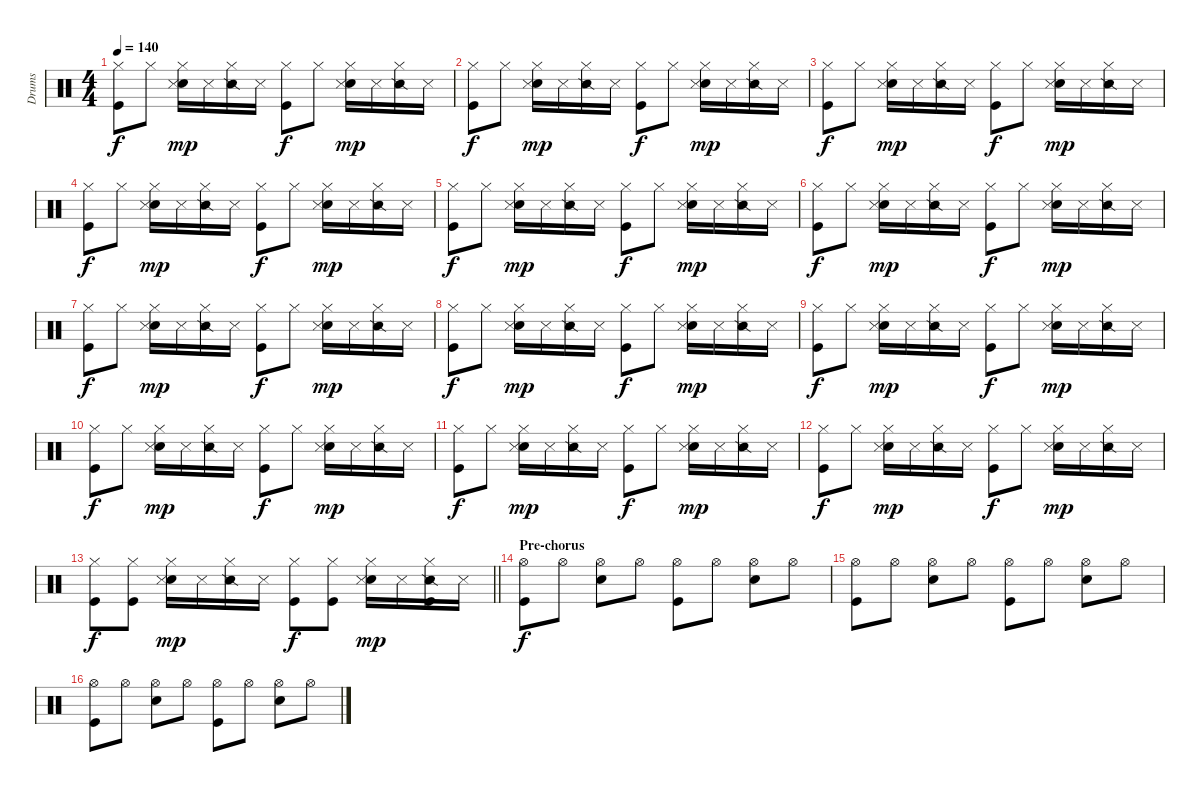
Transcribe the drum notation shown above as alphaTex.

\track ("Drums" "Drums") {instrument percussion}
\staff {score}
\articulation defaults
\ts (4 4)
\tempo 140
\clef neutral
\ks c
("Hi-Hat (closed)" "Kick (hit)").8{dy f} "Hi-Hat (closed)".8 ("Hi-Hat (closed)" "Snare (hit) 2" "Snare (side stick) 3").16{dy mp} "Metronome (hit)".16 ("Hi-Hat (closed)" "Snare (side stick) 2").16 "Metronome (hit)".16 ("Hi-Hat (closed)" "Kick (hit)").8{dy f} "Hi-Hat (closed)".8 ("Hi-Hat (closed)" "Snare (hit) 2" "Snare (side stick) 3").16{dy mp} "Metronome (hit)".16 ("Hi-Hat (closed)" "Snare (side stick) 2").16 "Metronome (hit)".16 |
("Hi-Hat (closed)" "Kick (hit)").8{dy f} "Hi-Hat (closed)".8 ("Hi-Hat (closed)" "Snare (hit) 2" "Snare (side stick) 3").16{dy mp} "Metronome (hit)".16 ("Hi-Hat (closed)" "Snare (side stick) 2").16 "Metronome (hit)".16 ("Hi-Hat (closed)" "Kick (hit)").8{dy f} "Hi-Hat (closed)".8 ("Hi-Hat (closed)" "Snare (hit) 2" "Snare (side stick) 3").16{dy mp} "Metronome (hit)".16 ("Hi-Hat (closed)" "Snare (side stick) 2").16 "Metronome (hit)".16 |
("Hi-Hat (closed)" "Kick (hit)").8{dy f} "Hi-Hat (closed)".8 ("Hi-Hat (closed)" "Snare (hit) 2" "Snare (side stick) 3").16{dy mp} "Metronome (hit)".16 ("Hi-Hat (closed)" "Snare (side stick) 2").16 "Metronome (hit)".16 ("Hi-Hat (closed)" "Kick (hit)").8{dy f} "Hi-Hat (closed)".8 ("Hi-Hat (closed)" "Snare (hit) 2" "Snare (side stick) 3").16{dy mp} "Metronome (hit)".16 ("Hi-Hat (closed)" "Snare (side stick) 2").16 "Metronome (hit)".16 |
("Hi-Hat (closed)" "Kick (hit)").8{dy f} "Hi-Hat (closed)".8 ("Hi-Hat (closed)" "Snare (hit) 2" "Snare (side stick) 3").16{dy mp} "Metronome (hit)".16 ("Hi-Hat (closed)" "Snare (side stick) 2").16 "Metronome (hit)".16 ("Hi-Hat (closed)" "Kick (hit)").8{dy f} "Hi-Hat (closed)".8 ("Hi-Hat (closed)" "Snare (hit) 2" "Snare (side stick) 3").16{dy mp} "Metronome (hit)".16 ("Hi-Hat (closed)" "Snare (side stick) 2").16 "Metronome (hit)".16 |
("Hi-Hat (closed)" "Kick (hit)").8{dy f} "Hi-Hat (closed)".8 ("Hi-Hat (closed)" "Snare (hit) 2" "Snare (side stick) 3").16{dy mp} "Metronome (hit)".16 ("Hi-Hat (closed)" "Snare (side stick) 2").16 "Metronome (hit)".16 ("Hi-Hat (closed)" "Kick (hit)").8{dy f} "Hi-Hat (closed)".8 ("Hi-Hat (closed)" "Snare (hit) 2" "Snare (side stick) 3").16{dy mp} "Metronome (hit)".16 ("Hi-Hat (closed)" "Snare (side stick) 2").16 "Metronome (hit)".16 |
("Hi-Hat (closed)" "Kick (hit)").8{dy f} "Hi-Hat (closed)".8 ("Hi-Hat (closed)" "Snare (hit) 2" "Snare (side stick) 3").16{dy mp} "Metronome (hit)".16 ("Hi-Hat (closed)" "Snare (side stick) 2").16 "Metronome (hit)".16 ("Hi-Hat (closed)" "Kick (hit)").8{dy f} "Hi-Hat (closed)".8 ("Hi-Hat (closed)" "Snare (hit) 2" "Snare (side stick) 3").16{dy mp} "Metronome (hit)".16 ("Hi-Hat (closed)" "Snare (side stick) 2").16 "Metronome (hit)".16 |
("Hi-Hat (closed)" "Kick (hit)").8{dy f} "Hi-Hat (closed)".8 ("Hi-Hat (closed)" "Snare (hit) 2" "Snare (side stick) 3").16{dy mp} "Metronome (hit)".16 ("Hi-Hat (closed)" "Snare (side stick) 2").16 "Metronome (hit)".16 ("Hi-Hat (closed)" "Kick (hit)").8{dy f} "Hi-Hat (closed)".8 ("Hi-Hat (closed)" "Snare (hit) 2" "Snare (side stick) 3").16{dy mp} "Metronome (hit)".16 ("Hi-Hat (closed)" "Snare (side stick) 2").16 "Metronome (hit)".16 |
("Hi-Hat (closed)" "Kick (hit)").8{dy f} "Hi-Hat (closed)".8 ("Hi-Hat (closed)" "Snare (hit) 2" "Snare (side stick) 3").16{dy mp} "Metronome (hit)".16 ("Hi-Hat (closed)" "Snare (side stick) 2").16 "Metronome (hit)".16 ("Hi-Hat (closed)" "Kick (hit)").8{dy f} "Hi-Hat (closed)".8 ("Hi-Hat (closed)" "Snare (hit) 2" "Snare (side stick) 3").16{dy mp} "Metronome (hit)".16 ("Hi-Hat (closed)" "Snare (side stick) 2").16 "Metronome (hit)".16 |
("Hi-Hat (closed)" "Kick (hit)").8{dy f} "Hi-Hat (closed)".8 ("Hi-Hat (closed)" "Snare (hit) 2" "Snare (side stick) 3").16{dy mp} "Metronome (hit)".16 ("Hi-Hat (closed)" "Snare (side stick) 2").16 "Metronome (hit)".16 ("Hi-Hat (closed)" "Kick (hit)").8{dy f} "Hi-Hat (closed)".8 ("Hi-Hat (closed)" "Snare (hit) 2" "Snare (side stick) 3").16{dy mp} "Metronome (hit)".16 ("Hi-Hat (closed)" "Snare (side stick) 2").16 "Metronome (hit)".16 |
("Hi-Hat (closed)" "Kick (hit)").8{dy f} "Hi-Hat (closed)".8 ("Hi-Hat (closed)" "Snare (hit) 2" "Snare (side stick) 3").16{dy mp} "Metronome (hit)".16 ("Hi-Hat (closed)" "Snare (side stick) 2").16 "Metronome (hit)".16 ("Hi-Hat (closed)" "Kick (hit)").8{dy f} "Hi-Hat (closed)".8 ("Hi-Hat (closed)" "Snare (hit) 2" "Snare (side stick) 3").16{dy mp} "Metronome (hit)".16 ("Hi-Hat (closed)" "Snare (side stick) 2").16 "Metronome (hit)".16 |
("Hi-Hat (closed)" "Kick (hit)").8{dy f} "Hi-Hat (closed)".8 ("Hi-Hat (closed)" "Snare (hit) 2" "Snare (side stick) 3").16{dy mp} "Metronome (hit)".16 ("Hi-Hat (closed)" "Snare (side stick) 2").16 "Metronome (hit)".16 ("Hi-Hat (closed)" "Kick (hit)").8{dy f} "Hi-Hat (closed)".8 ("Hi-Hat (closed)" "Snare (hit) 2" "Snare (side stick) 3").16{dy mp} "Metronome (hit)".16 ("Hi-Hat (closed)" "Snare (side stick) 2").16 "Metronome (hit)".16 |
("Hi-Hat (closed)" "Kick (hit)").8{dy f} "Hi-Hat (closed)".8 ("Hi-Hat (closed)" "Snare (hit) 2" "Snare (side stick) 3").16{dy mp} "Metronome (hit)".16 ("Hi-Hat (closed)" "Snare (side stick) 2").16 "Metronome (hit)".16 ("Hi-Hat (closed)" "Kick (hit)").8{dy f} "Hi-Hat (closed)".8 ("Hi-Hat (closed)" "Snare (hit) 2" "Snare (side stick) 3").16{dy mp} "Metronome (hit)".16 ("Hi-Hat (closed)" "Snare (side stick) 2").16 "Metronome (hit)".16 |
\barLineRight lightlight
("Hi-Hat (closed)" "Kick (hit)").8{dy f} ("Hi-Hat (closed)" "Kick (hit)").8 ("Hi-Hat (closed)" "Snare (hit) 2" "Snare (side stick) 3").16{dy mp} "Metronome (hit)".16 ("Hi-Hat (closed)" "Snare (side stick) 2").16 "Metronome (hit)".16 ("Hi-Hat (closed)" "Kick (hit)").8{dy f} ("Hi-Hat (closed)" "Kick (hit)").8 ("Hi-Hat (closed)" "Snare (hit) 2" "Snare (side stick) 3").16{dy mp} "Metronome (hit)".16 ("Hi-Hat (closed)" "Snare (side stick) 2" "Kick (hit)").16 "Metronome (hit)".16 |
\section ("" "Pre-chorus")
("Hi-Hat (open)" "Kick (hit)").8{dy f} "Hi-Hat (open)".8 ("Hi-Hat (open)" "Snare (hit) 2").8 "Hi-Hat (open)".8 ("Hi-Hat (open)" "Kick (hit)").8 "Hi-Hat (open)".8 ("Hi-Hat (open)" "Snare (hit) 2").8 "Hi-Hat (open)".8 |
("Hi-Hat (open)" "Kick (hit)").8 "Hi-Hat (open)".8 ("Hi-Hat (open)" "Snare (hit) 2").8 "Hi-Hat (open)".8 ("Hi-Hat (open)" "Kick (hit)").8 "Hi-Hat (open)".8 ("Hi-Hat (open)" "Snare (hit) 2").8 "Hi-Hat (open)".8 |
("Hi-Hat (open)" "Kick (hit)").8 "Hi-Hat (open)".8 ("Hi-Hat (open)" "Snare (hit) 2").8 "Hi-Hat (open)".8 ("Hi-Hat (open)" "Kick (hit)").8 "Hi-Hat (open)".8 ("Hi-Hat (open)" "Snare (hit) 2").8 "Hi-Hat (open)".8
